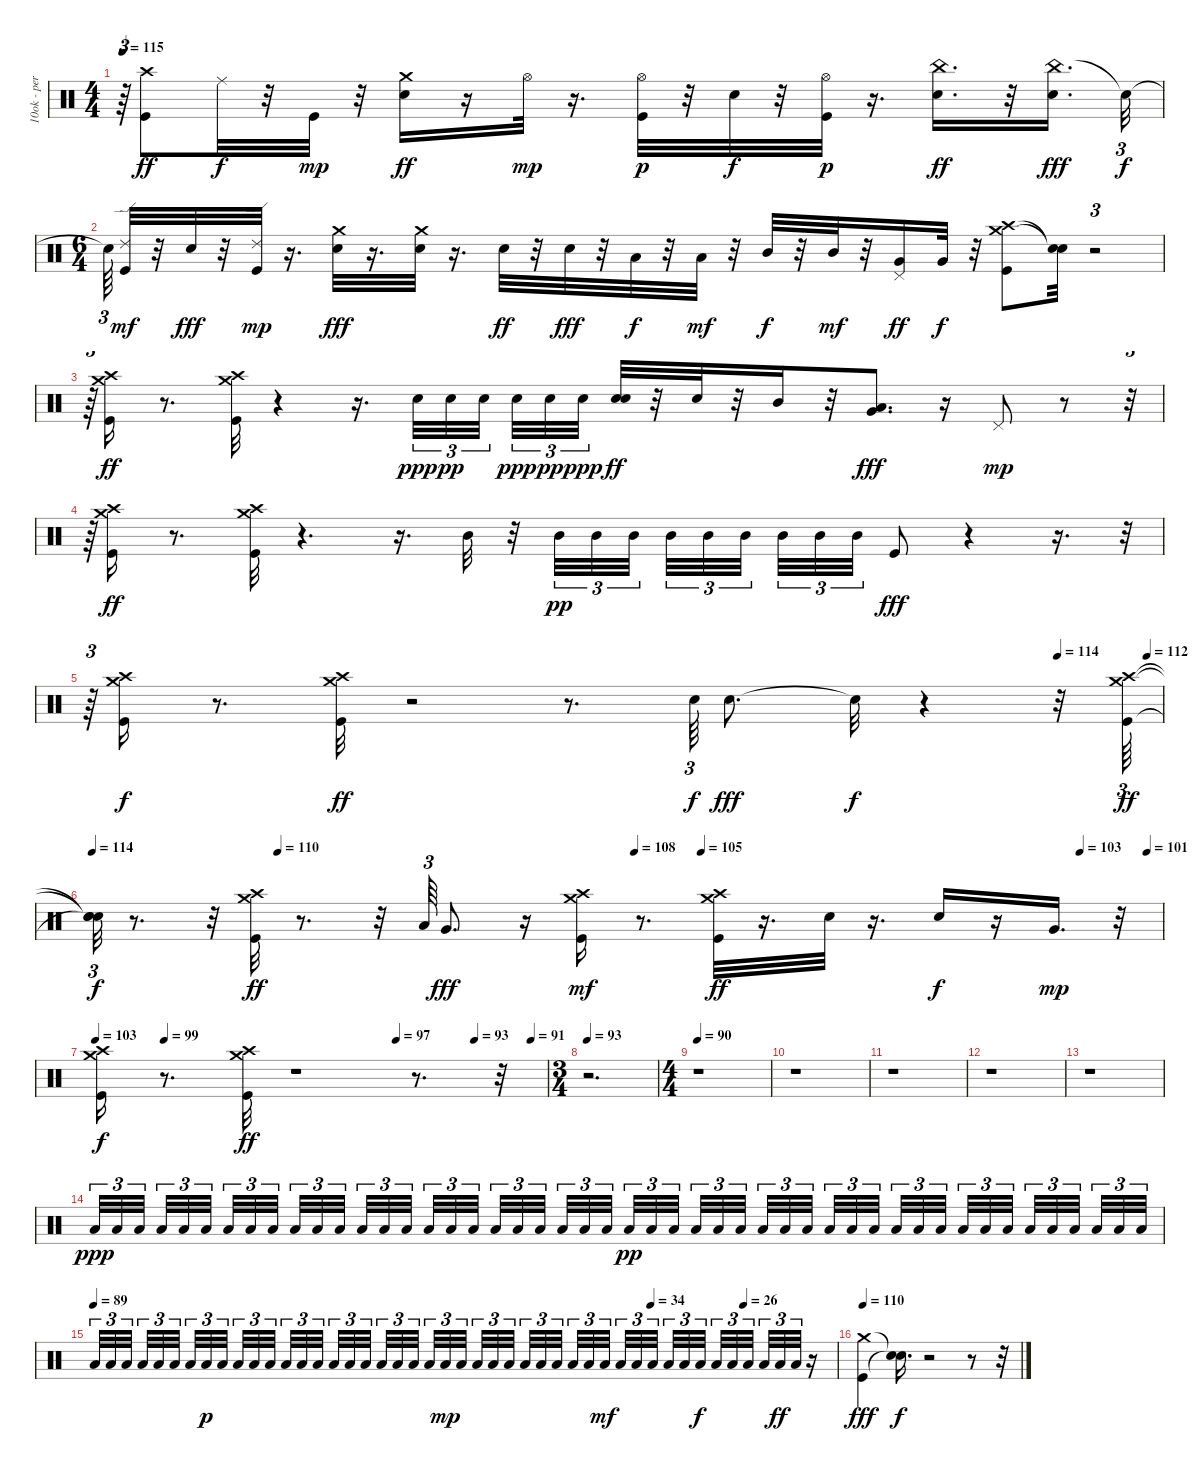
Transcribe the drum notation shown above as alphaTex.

\track ("10ok - percussioni" "10ok - per") {instrument percussion}
\staff {score}
\articulation defaults
\ts (4 4)
\tempo 115
\clef neutral
\ks c
r.64{tu (3 2) dy ff} ("Crash high (hit)" "Kick (hit)").8 "Ride (middle)".32{dy f} r.32 "Kick (hit)".32{dy mp} r.32 ("Crash medium (hit)" "Snare (hit) 2").16{dy ff} r.16 "Hi-Hat (open)".32{dy mp} r.16{d} ("Hi-Hat (open)" "Kick (hit)").32{dy p} r.32 "Snare (hit) 2".32{dy f} r.32 ("Hi-Hat (open)" "Kick (hit)").32{dy p} r.16{d} ("Snare (hit) 2" "China (hit)").16{d dy ff} r.32 ("China (hit)" "Snare (hit) 2").16{d dy fff} "Snare (hit)"{t}.32{tu (3 2) dy f} |
\ts (6 4)
"Snare (hit)"{t}.64{tu (3 2)} ("Ride (edge) 2" "Kick (hit)").32{dy mf} r.32 "Snare (hit) 2".32{dy fff} r.32 ("Ride (edge) 2" "Kick (hit)").32{dy mp} r.16{d} ("Crash medium (hit)" "Snare (hit) 2").32{dy fff} r.16{d} ("Crash medium (hit)" "Snare (hit) 2").32 r.16{d} "Snare (hit) 2".32{dy ff} r.32 "Snare (hit) 2".32{dy fff} r.32 "Low Tom (hit)".32{dy f} r.32 "Low Tom (hit)".32{dy mf} r.32 "Mid Tom (hit)".32{dy f} r.32 "Mid Tom (hit)".32{dy mf} r.32 ("Very Low Tom (hit)" "Pedal Hi-Hat (hit)").16{dy ff} "Very Low Tom (hit)".32{dy f} r.32 ("Crash medium (hit)" "Crash high (hit)" "Kick (hit)").8 ("Snare (hit)"{t} "Snare (hit)"{t}).32 r.2{tu (3 2)} |
r.64{tu (3 2)} ("Crash medium (hit)" "Crash high (hit)" "Kick (hit)").16{dy ff} r.8{d} ("Crash medium (hit)" "Crash high (hit)" "Kick (hit)").32 r.4 r.16{d} "Snare (hit) 2".32{tu (3 2) dy ppp} "Snare (hit) 2".32{tu (3 2) dy pp} "Snare (hit) 2".32{tu (3 2) beam splitsecondary} "Snare (hit) 2".32{tu (3 2) dy ppp} "Snare (hit) 2".32{tu (3 2) dy pp} "Snare (hit) 2".32{tu (3 2) dy ppp} ("Snare (hit) 2" "Snare (hit) 2").32{dy ff} r.32 "Snare (hit) 2".32 r.32 "Mid Tom (hit)".16 r.32 ("Very Low Tom (hit)" "Low Tom (hit)").8{d dy fff} r.16 "Pedal Hi-Hat (hit)".8{dy mp} r.8 r.32{tu (3 2)} |
r.64{tu (3 2)} ("Crash medium (hit)" "Crash high (hit)" "Kick (hit)").16{dy ff} r.8{d} ("Crash medium (hit)" "Crash high (hit)" "Kick (hit)").32 r.4{d} r.16{d} "Mid Tom (hit)".32 r.32 "Mid Tom (hit)".32{tu (3 2) dy pp} "Mid Tom (hit)".32{tu (3 2)} "Mid Tom (hit)".32{tu (3 2) beam splitsecondary} "Mid Tom (hit)".32{tu (3 2)} "Mid Tom (hit)".32{tu (3 2)} "Mid Tom (hit)".32{tu (3 2) beam splitsecondary} "Mid Tom (hit)".32{tu (3 2)} "Mid Tom (hit)".32{tu (3 2)} "Mid Tom (hit)".32{tu (3 2)} "Kick (hit)".8{dy fff} r.4 r.16{d} r.32{tu (3 2)} |
\tempo (114 0.9027777777777778)
\tempo (112 0.9861111111111112)
r.64{tu (3 2)} ("Kick (hit)" "Crash medium (hit)" "Crash high (hit)").16{dy f} r.8{d} ("Crash medium (hit)" "Kick (hit)" "Crash high (hit)").32{dy ff} r.2 r.8{d} "Snare (hit) 2".64{tu (3 2) dy f} "Snare (hit) 2".8{d dy fff} "Snare (hit)"{t}.32{dy f} r.4 r.32 ("Crash medium (hit)" "Kick (hit)" "Crash high (hit)").64{tu (3 2) dy ff} |
\tempo (110 0.1736111111111111)
\tempo (108 0.5069444444444444)
\tempo (105 0.5694444444444444)
\tempo (103 0.9236111111111112)
\tempo (101 0.9861111111111112)
\tempo 114
("Snare (hit)"{t} "Snare (hit)"{t} "Snare (hit)"{t}).32{tu (3 2) dy f} r.8{d} r.32 ("Crash medium (hit)" "Kick (hit)" "Crash high (hit)").32{dy ff} r.8{d} r.32 "Low Tom (hit)".64{tu (3 2)} "Very Low Tom (hit)".8{d dy fff} r.16 ("Crash medium (hit)" "Crash high (hit)" "Kick (hit)").16{dy mf} r.8{d} ("Crash high (hit)" "Crash medium (hit)" "Kick (hit)").32{dy ff} r.16{d} "Snare (hit) 2".32 r.16{d} "Snare (hit) 2".16{dy f} r.16 "Very Low Tom (hit)".16{d dy mp} r.32 |
\tempo (99 0.1527777777777778)
\tempo (93 0.8402777777777778)
\tempo (91 0.9652777777777778)
\tempo 103
\tempo (97 0.6666666666666666)
("Crash medium (hit)" "Crash high (hit)" "Kick (hit)").16{dy f} r.8{d} ("Crash high (hit)" "Crash medium (hit)" "Kick (hit)").32{dy ff} r.1 r.8{d} r.32 |
\ts (3 4)
\tempo 93
r.2{d} |
\ts (4 4)
\tempo 90
r.1 |
r.1 |
r.1 |
r.1 |
r.1 |
"Low Floor Tom (hit)".32{tu (3 2) dy ppp volume 14} "Low Floor Tom (hit)".32{tu (3 2)} "Low Floor Tom (hit)".32{tu (3 2) beam splitsecondary} "Low Floor Tom (hit)".32{tu (3 2)} "Low Floor Tom (hit)".32{tu (3 2)} "Low Floor Tom (hit)".32{tu (3 2) beam splitsecondary} "Low Floor Tom (hit)".32{tu (3 2) volume 14} "Low Floor Tom (hit)".32{tu (3 2)} "Low Floor Tom (hit)".32{tu (3 2) beam splitsecondary} "Low Floor Tom (hit)".32{tu (3 2)} "Low Floor Tom (hit)".32{tu (3 2)} "Low Floor Tom (hit)".32{tu (3 2)} "Low Floor Tom (hit)".32{tu (3 2) volume 14} "Low Floor Tom (hit)".32{tu (3 2)} "Low Floor Tom (hit)".32{tu (3 2) beam splitsecondary} "Low Floor Tom (hit)".32{tu (3 2)} "Low Floor Tom (hit)".32{tu (3 2)} "Low Floor Tom (hit)".32{tu (3 2) volume 14 beam splitsecondary} "Low Floor Tom (hit)".32{tu (3 2)} "Low Floor Tom (hit)".32{tu (3 2)} "Low Floor Tom (hit)".32{tu (3 2) beam splitsecondary} "Low Floor Tom (hit)".32{tu (3 2)} "Low Floor Tom (hit)".32{tu (3 2)} "Low Floor Tom (hit)".32{tu (3 2) volume 14} "Low Floor Tom (hit)".32{tu (3 2) dy pp} "Low Floor Tom (hit)".32{tu (3 2)} "Low Floor Tom (hit)".32{tu (3 2) beam splitsecondary} "Low Floor Tom (hit)".32{tu (3 2)} "Low Floor Tom (hit)".32{tu (3 2) volume 14} "Low Floor Tom (hit)".32{tu (3 2) beam splitsecondary} "Low Floor Tom (hit)".32{tu (3 2)} "Low Floor Tom (hit)".32{tu (3 2)} "Low Floor Tom (hit)".32{tu (3 2) beam splitsecondary} "Low Floor Tom (hit)".32{tu (3 2)} "Low Floor Tom (hit)".32{tu (3 2) volume 14} "Low Floor Tom (hit)".32{tu (3 2)} "Low Floor Tom (hit)".32{tu (3 2)} "Low Floor Tom (hit)".32{tu (3 2)} "Low Floor Tom (hit)".32{tu (3 2) beam splitsecondary} "Low Floor Tom (hit)".32{tu (3 2) volume 15} "Low Floor Tom (hit)".32{tu (3 2)} "Low Floor Tom (hit)".32{tu (3 2) beam splitsecondary} "Low Floor Tom (hit)".32{tu (3 2)} "Low Floor Tom (hit)".32{tu (3 2)} "Low Floor Tom (hit)".32{tu (3 2) beam splitsecondary} "Low Floor Tom (hit)".32{tu (3 2) volume 15} "Low Floor Tom (hit)".32{tu (3 2)} "Low Floor Tom (hit)".32{tu (3 2)} |
\tempo 62
\tempo 89
\tempo (34 0.75)
\tempo (26 0.875)
"Low Floor Tom (hit)".32{tu (3 2)} "Low Floor Tom (hit)".32{tu (3 2)} "Low Floor Tom (hit)".32{tu (3 2) volume 15 beam splitsecondary} "Low Floor Tom (hit)".32{tu (3 2)} "Low Floor Tom (hit)".32{tu (3 2)} "Low Floor Tom (hit)".32{tu (3 2) beam splitsecondary} "Low Floor Tom (hit)".32{tu (3 2)} "Low Floor Tom (hit)".32{tu (3 2) dy p} "Low Floor Tom (hit)".32{tu (3 2) volume 15 beam splitsecondary} "Low Floor Tom (hit)".32{tu (3 2)} "Low Floor Tom (hit)".32{tu (3 2)} "Low Floor Tom (hit)".32{tu (3 2)} "Low Floor Tom (hit)".32{tu (3 2)} "Low Floor Tom (hit)".32{tu (3 2) volume 15} "Low Floor Tom (hit)".32{tu (3 2) beam splitsecondary} "Low Floor Tom (hit)".32{tu (3 2)} "Low Floor Tom (hit)".32{tu (3 2)} "Low Floor Tom (hit)".32{tu (3 2) beam splitsecondary} "Low Floor Tom (hit)".32{tu (3 2)} "Low Floor Tom (hit)".32{tu (3 2) volume 15} "Low Floor Tom (hit)".32{tu (3 2) beam splitsecondary} "Low Floor Tom (hit)".32{tu (3 2)} "Low Floor Tom (hit)".32{tu (3 2) dy mp} "Low Floor Tom (hit)".32{tu (3 2)} "Low Floor Tom (hit)".32{tu (3 2) volume 15} "Low Floor Tom (hit)".32{tu (3 2)} "Low Floor Tom (hit)".32{tu (3 2) beam splitsecondary} "Low Floor Tom (hit)".32{tu (3 2)} "Low Floor Tom (hit)".32{tu (3 2)} "Low Floor Tom (hit)".32{tu (3 2) beam splitsecondary} "Low Floor Tom (hit)".32{tu (3 2) volume 16} "Low Floor Tom (hit)".32{tu (3 2)} "Low Floor Tom (hit)".32{tu (3 2) dy mf beam splitsecondary} "Low Floor Tom (hit)".32{tu (3 2)} "Low Floor Tom (hit)".32{tu (3 2)} "Low Floor Tom (hit)".32{tu (3 2) volume 16} "Low Floor Tom (hit)".32{tu (3 2)} "Low Floor Tom (hit)".32{tu (3 2)} "Low Floor Tom (hit)".32{tu (3 2) dy f beam splitsecondary} "Low Floor Tom (hit)".32{tu (3 2)} "Low Floor Tom (hit)".32{tu (3 2)} "Low Floor Tom (hit)".32{tu (3 2) volume 16 beam splitsecondary} "Low Floor Tom (hit)".32{tu (3 2)} "Low Floor Tom (hit)".32{tu (3 2) dy ff} "Low Floor Tom (hit)".32{tu (3 2)} r.16 |
\tempo 110
("Crash medium (hit)" "Kick (hit)").4{dy fff volume 14} ("Snare (hit)"{t} "Snare (hit)"{t}).16{d dy f} r.2 r.8 r.32
